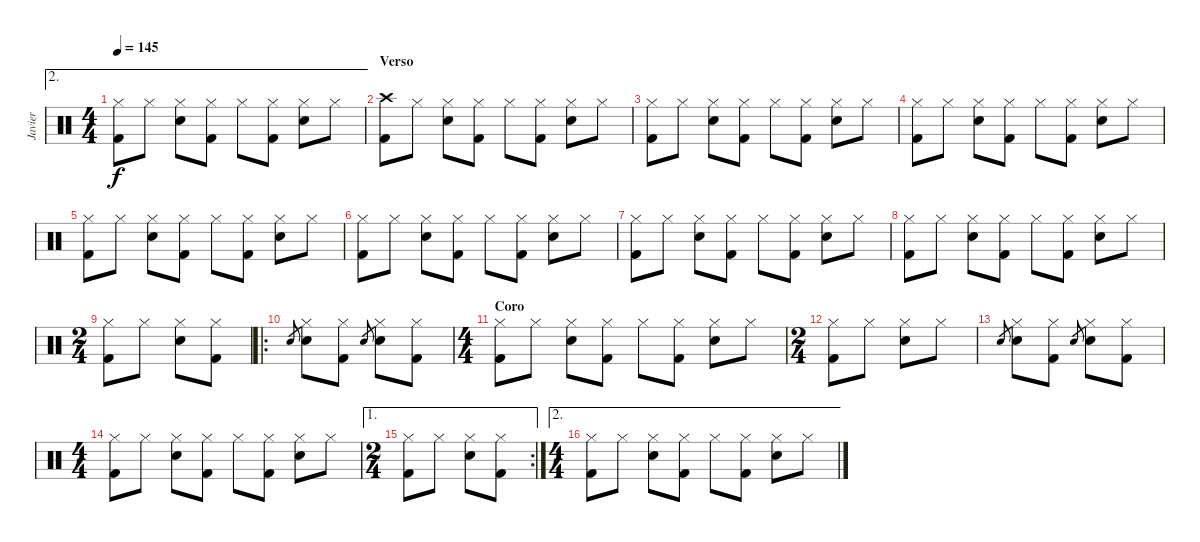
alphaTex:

\track ("Javier" "Javier") {instrument percussion}
\staff {score}
\articulation defaults
\ae 2
\ts (4 4)
\tempo 145
\clef neutral
\ks c
("Hi-Hat (closed)" "Kick (hit) 2").8{dy f} "Hi-Hat (closed)".8 ("Hi-Hat (closed)" "Snare (hit) 2").8 ("Hi-Hat (closed)" "Kick (hit) 2").8 "Hi-Hat (closed)".8 ("Hi-Hat (closed)" "Kick (hit) 2").8 ("Hi-Hat (closed)" "Snare (hit) 2").8 "Hi-Hat (closed)".8 |
\section ("" "Verso")
("Crash high (hit)" "Kick (hit) 2").8 "Hi-Hat (closed)".8 ("Hi-Hat (closed)" "Snare (hit) 2").8 ("Hi-Hat (closed)" "Kick (hit) 2").8 "Hi-Hat (closed)".8 ("Hi-Hat (closed)" "Kick (hit) 2").8 ("Hi-Hat (closed)" "Snare (hit) 2").8 "Hi-Hat (closed)".8 |
("Hi-Hat (closed)" "Kick (hit) 2").8 "Hi-Hat (closed)".8 ("Hi-Hat (closed)" "Snare (hit) 2").8 ("Hi-Hat (closed)" "Kick (hit) 2").8 "Hi-Hat (closed)".8 ("Hi-Hat (closed)" "Kick (hit) 2").8 ("Hi-Hat (closed)" "Snare (hit) 2").8 "Hi-Hat (closed)".8 |
("Hi-Hat (closed)" "Kick (hit) 2").8 "Hi-Hat (closed)".8 ("Hi-Hat (closed)" "Snare (hit) 2").8 ("Hi-Hat (closed)" "Kick (hit) 2").8 "Hi-Hat (closed)".8 ("Hi-Hat (closed)" "Kick (hit) 2").8 ("Hi-Hat (closed)" "Snare (hit) 2").8 "Hi-Hat (closed)".8 |
("Hi-Hat (closed)" "Kick (hit) 2").8 "Hi-Hat (closed)".8 ("Hi-Hat (closed)" "Snare (hit) 2").8 ("Hi-Hat (closed)" "Kick (hit) 2").8 "Hi-Hat (closed)".8 ("Hi-Hat (closed)" "Kick (hit) 2").8 ("Hi-Hat (closed)" "Snare (hit) 2").8 "Hi-Hat (closed)".8 |
("Hi-Hat (closed)" "Kick (hit) 2").8 "Hi-Hat (closed)".8 ("Hi-Hat (closed)" "Snare (hit) 2").8 ("Hi-Hat (closed)" "Kick (hit) 2").8 "Hi-Hat (closed)".8 ("Hi-Hat (closed)" "Kick (hit) 2").8 ("Hi-Hat (closed)" "Snare (hit) 2").8 "Hi-Hat (closed)".8 |
("Hi-Hat (closed)" "Kick (hit) 2").8 "Hi-Hat (closed)".8 ("Hi-Hat (closed)" "Snare (hit) 2").8 ("Hi-Hat (closed)" "Kick (hit) 2").8 "Hi-Hat (closed)".8 ("Hi-Hat (closed)" "Kick (hit) 2").8 ("Hi-Hat (closed)" "Snare (hit) 2").8 "Hi-Hat (closed)".8 |
("Hi-Hat (closed)" "Kick (hit) 2").8 "Hi-Hat (closed)".8 ("Hi-Hat (closed)" "Snare (hit) 2").8 ("Hi-Hat (closed)" "Kick (hit) 2").8 "Hi-Hat (closed)".8 ("Hi-Hat (closed)" "Kick (hit) 2").8 ("Hi-Hat (closed)" "Snare (hit) 2").8 "Hi-Hat (closed)".8 |
\ts (2 4)
("Hi-Hat (closed)" "Kick (hit) 2").8 "Hi-Hat (closed)".8 ("Hi-Hat (closed)" "Snare (hit) 2").8 ("Hi-Hat (closed)" "Kick (hit) 2").8 |
\ro "Snare (hit) 2".8{gr}
("Hi-Hat (closed)" "Snare (hit) 2").8 ("Hi-Hat (closed)" "Kick (hit) 2").8 "Snare (hit) 2".8{gr} ("Hi-Hat (closed)" "Snare (hit) 2").8 ("Hi-Hat (closed)" "Kick (hit) 2").8 |
\ts (4 4)
\section ("" "Coro")
("Hi-Hat (closed)" "Kick (hit) 2").8 "Hi-Hat (closed)".8 ("Hi-Hat (closed)" "Snare (hit) 2").8 ("Hi-Hat (closed)" "Kick (hit) 2").8 "Hi-Hat (closed)".8 ("Hi-Hat (closed)" "Kick (hit) 2").8 ("Hi-Hat (closed)" "Snare (hit) 2").8 "Hi-Hat (closed)".8 |
\ts (2 4)
("Hi-Hat (closed)" "Kick (hit) 2").8 "Hi-Hat (closed)".8 ("Hi-Hat (closed)" "Snare (hit) 2").8 "Hi-Hat (closed)".8 |
"Snare (hit) 2".8{gr} ("Hi-Hat (closed)" "Snare (hit) 2").8 ("Hi-Hat (closed)" "Kick (hit) 2").8 "Snare (hit) 2".8{gr} ("Hi-Hat (closed)" "Snare (hit) 2").8 ("Hi-Hat (closed)" "Kick (hit) 2").8 |
\ts (4 4)
("Hi-Hat (closed)" "Kick (hit) 2").8 "Hi-Hat (closed)".8 ("Hi-Hat (closed)" "Snare (hit) 2").8 ("Hi-Hat (closed)" "Kick (hit) 2").8 "Hi-Hat (closed)".8 ("Hi-Hat (closed)" "Kick (hit) 2").8 ("Hi-Hat (closed)" "Snare (hit) 2").8 "Hi-Hat (closed)".8 |
\ae 1
\rc 2
\ts (2 4)
("Hi-Hat (closed)" "Kick (hit) 2").8 "Hi-Hat (closed)".8 ("Hi-Hat (closed)" "Snare (hit) 2").8 ("Hi-Hat (closed)" "Kick (hit) 2").8 |
\ae 2
\ts (4 4)
("Hi-Hat (closed)" "Kick (hit) 2").8 "Hi-Hat (closed)".8 ("Hi-Hat (closed)" "Snare (hit) 2").8 ("Hi-Hat (closed)" "Kick (hit) 2").8 "Hi-Hat (closed)".8 ("Hi-Hat (closed)" "Kick (hit) 2").8 ("Hi-Hat (closed)" "Snare (hit) 2").8 "Hi-Hat (closed)".8
